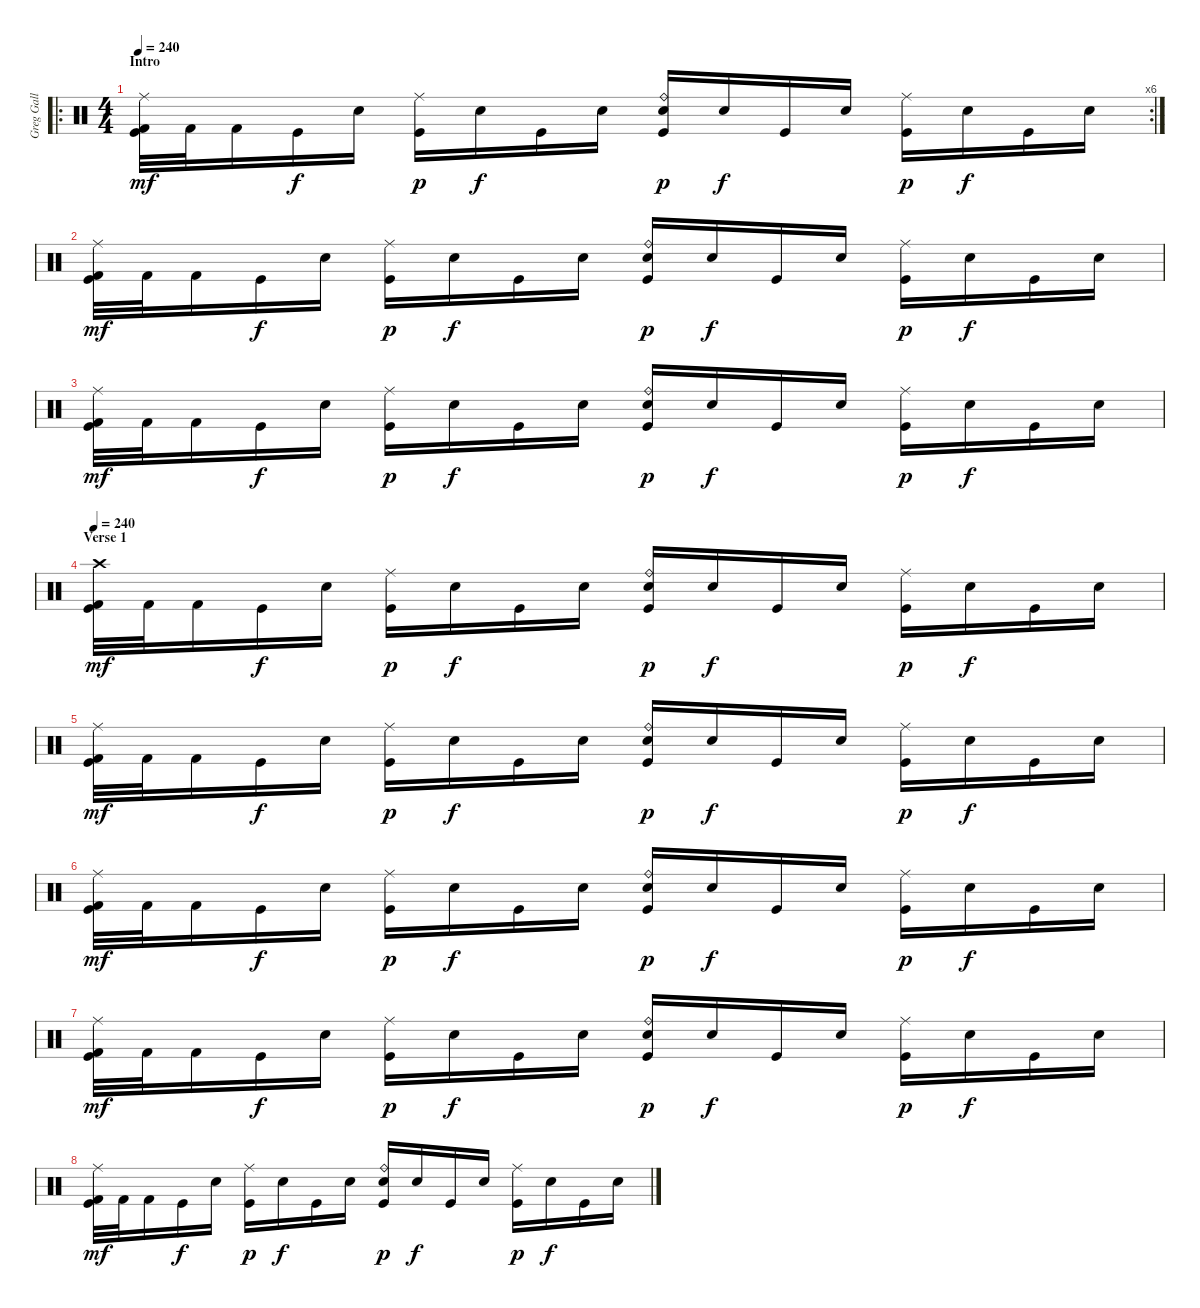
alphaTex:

\track ("Greg Gall - Drums" "Greg Gall ") {instrument percussion}
\staff {score}
\articulation defaults
\ro
\rc 6
\ts (4 4)
\section ("" "Intro")
\tempo 240
\clef neutral
\ks c
("Ride (middle)" "Kick (hit) 2" "Kick (hit)").32{dy mf volume 12 balance 8} "Kick (hit) 2".32 "Kick (hit) 2".16 "Kick (hit)".16{dy f} "Snare (hit)".16 ("Ride (middle)" "Kick (hit)").16{dy p} "Snare (hit)".16{dy f} "Kick (hit)".16 "Snare (hit)".16 ("Ride (bell)" "Electric Snare (hit)" "Kick (hit)").16{dy p} "Snare (hit)".16{dy f} "Kick (hit)".16 "Snare (hit)".16 ("Ride (middle)" "Kick (hit)").16{dy p} "Snare (hit)".16{dy f} "Kick (hit)".16 "Snare (hit)".16 |
("Ride (middle)" "Kick (hit) 2" "Kick (hit)").32{dy mf} "Kick (hit) 2".32 "Kick (hit) 2".16 "Kick (hit)".16{dy f} "Snare (hit)".16 ("Ride (middle)" "Kick (hit)").16{dy p} "Snare (hit)".16{dy f} "Kick (hit)".16 "Snare (hit)".16 ("Ride (bell)" "Electric Snare (hit)" "Kick (hit)").16{dy p} "Snare (hit)".16{dy f} "Kick (hit)".16 "Snare (hit)".16 ("Ride (middle)" "Kick (hit)").16{dy p} "Snare (hit)".16{dy f} "Kick (hit)".16 "Snare (hit)".16 |
("Ride (middle)" "Kick (hit) 2" "Kick (hit)").32{dy mf} "Kick (hit) 2".32 "Kick (hit) 2".16 "Kick (hit)".16{dy f} "Snare (hit)".16 ("Ride (middle)" "Kick (hit)").16{dy p} "Snare (hit)".16{dy f} "Kick (hit)".16 "Snare (hit)".16 ("Ride (bell)" "Electric Snare (hit)" "Kick (hit)").16{dy p} "Snare (hit)".16{dy f} "Kick (hit)".16 "Snare (hit)".16 ("Ride (middle)" "Kick (hit)").16{dy p} "Snare (hit)".16{dy f} "Kick (hit)".16 "Snare (hit)".16 |
\section ("" "Verse 1")
\tempo 240
("Crash high (hit)" "Kick (hit) 2" "Kick (hit)").32{dy mf volume 12 balance 8} "Kick (hit) 2".32 "Kick (hit) 2".16 "Kick (hit)".16{dy f} "Snare (hit)".16 ("Ride (middle)" "Kick (hit)").16{dy p} "Snare (hit)".16{dy f} "Kick (hit)".16 "Snare (hit)".16 ("Ride (bell)" "Electric Snare (hit)" "Kick (hit)").16{dy p} "Snare (hit)".16{dy f} "Kick (hit)".16 "Snare (hit)".16 ("Ride (middle)" "Kick (hit)").16{dy p} "Snare (hit)".16{dy f} "Kick (hit)".16 "Snare (hit)".16 |
("Ride (middle)" "Kick (hit) 2" "Kick (hit)").32{dy mf} "Kick (hit) 2".32 "Kick (hit) 2".16 "Kick (hit)".16{dy f} "Snare (hit)".16 ("Ride (middle)" "Kick (hit)").16{dy p} "Snare (hit)".16{dy f} "Kick (hit)".16 "Snare (hit)".16 ("Ride (bell)" "Electric Snare (hit)" "Kick (hit)").16{dy p} "Snare (hit)".16{dy f} "Kick (hit)".16 "Snare (hit)".16 ("Ride (middle)" "Kick (hit)").16{dy p} "Snare (hit)".16{dy f} "Kick (hit)".16 "Snare (hit)".16 |
("Ride (middle)" "Kick (hit) 2" "Kick (hit)").32{dy mf} "Kick (hit) 2".32 "Kick (hit) 2".16 "Kick (hit)".16{dy f} "Snare (hit)".16 ("Ride (middle)" "Kick (hit)").16{dy p} "Snare (hit)".16{dy f} "Kick (hit)".16 "Snare (hit)".16 ("Ride (bell)" "Electric Snare (hit)" "Kick (hit)").16{dy p} "Snare (hit)".16{dy f} "Kick (hit)".16 "Snare (hit)".16 ("Ride (middle)" "Kick (hit)").16{dy p} "Snare (hit)".16{dy f} "Kick (hit)".16 "Snare (hit)".16 |
("Ride (middle)" "Kick (hit) 2" "Kick (hit)").32{dy mf} "Kick (hit) 2".32 "Kick (hit) 2".16 "Kick (hit)".16{dy f} "Snare (hit)".16 ("Ride (middle)" "Kick (hit)").16{dy p} "Snare (hit)".16{dy f} "Kick (hit)".16 "Snare (hit)".16 ("Ride (bell)" "Electric Snare (hit)" "Kick (hit)").16{dy p} "Snare (hit)".16{dy f} "Kick (hit)".16 "Snare (hit)".16 ("Ride (middle)" "Kick (hit)").16{dy p} "Snare (hit)".16{dy f} "Kick (hit)".16 "Snare (hit)".16 |
("Ride (middle)" "Kick (hit) 2" "Kick (hit)").32{dy mf} "Kick (hit) 2".32 "Kick (hit) 2".16 "Kick (hit)".16{dy f} "Snare (hit)".16 ("Ride (middle)" "Kick (hit)").16{dy p} "Snare (hit)".16{dy f} "Kick (hit)".16 "Snare (hit)".16 ("Ride (bell)" "Electric Snare (hit)" "Kick (hit)").16{dy p} "Snare (hit)".16{dy f} "Kick (hit)".16 "Snare (hit)".16 ("Ride (middle)" "Kick (hit)").16{dy p} "Snare (hit)".16{dy f} "Kick (hit)".16 "Snare (hit)".16
